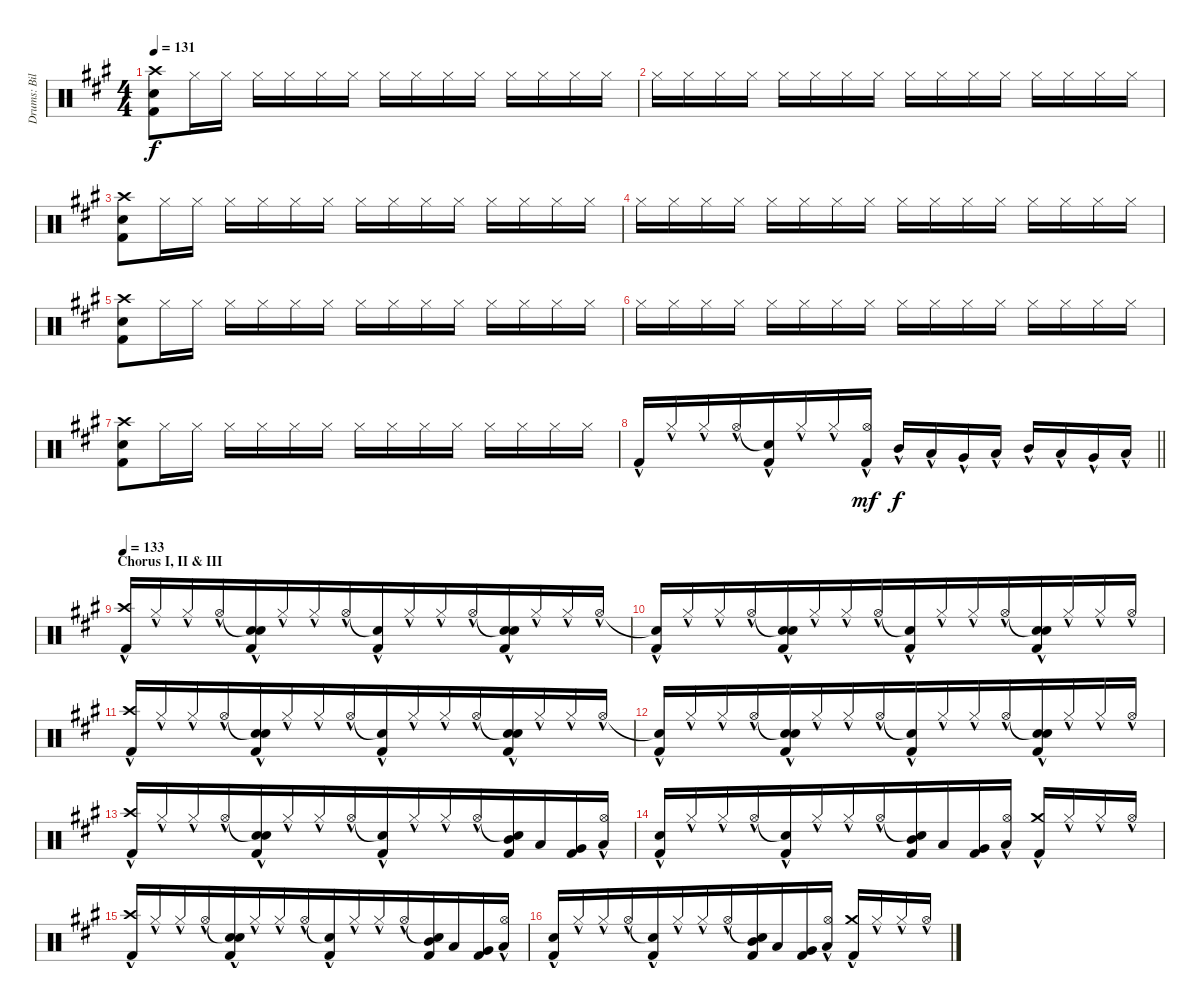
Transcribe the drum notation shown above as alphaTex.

\track ("Drums: Bill" "Drums: Bil") {instrument percussion}
\staff {score}
\articulation defaults
\ts (4 4)
\tempo 131
\clef neutral
\ks a
("Crash high (hit)" "Snare (hit) 2" "Kick (hit) 2").8{dy f} "Hi-Hat (closed)".16 "Hi-Hat (closed)".16 "Hi-Hat (closed)".16 "Hi-Hat (closed)".16 "Hi-Hat (closed)".16 "Hi-Hat (closed)".16 "Hi-Hat (closed)".16 "Hi-Hat (closed)".16 "Hi-Hat (closed)".16 "Hi-Hat (closed)".16 "Hi-Hat (closed)".16 "Hi-Hat (closed)".16 "Hi-Hat (closed)".16 "Hi-Hat (closed)".16 |
"Hi-Hat (closed)".16 "Hi-Hat (closed)".16 "Hi-Hat (closed)".16 "Hi-Hat (closed)".16 "Hi-Hat (closed)".16 "Hi-Hat (closed)".16 "Hi-Hat (closed)".16 "Hi-Hat (closed)".16 "Hi-Hat (closed)".16 "Hi-Hat (closed)".16 "Hi-Hat (closed)".16 "Hi-Hat (closed)".16 "Hi-Hat (closed)".16 "Hi-Hat (closed)".16 "Hi-Hat (closed)".16 "Hi-Hat (closed)".16 |
("Crash high (hit)" "Snare (hit) 2" "Kick (hit) 2").8 "Hi-Hat (closed)".16 "Hi-Hat (closed)".16 "Hi-Hat (closed)".16 "Hi-Hat (closed)".16 "Hi-Hat (closed)".16 "Hi-Hat (closed)".16 "Hi-Hat (closed)".16 "Hi-Hat (closed)".16 "Hi-Hat (closed)".16 "Hi-Hat (closed)".16 "Hi-Hat (closed)".16 "Hi-Hat (closed)".16 "Hi-Hat (closed)".16 "Hi-Hat (closed)".16 |
"Hi-Hat (closed)".16 "Hi-Hat (closed)".16 "Hi-Hat (closed)".16 "Hi-Hat (closed)".16 "Hi-Hat (closed)".16 "Hi-Hat (closed)".16 "Hi-Hat (closed)".16 "Hi-Hat (closed)".16 "Hi-Hat (closed)".16 "Hi-Hat (closed)".16 "Hi-Hat (closed)".16 "Hi-Hat (closed)".16 "Hi-Hat (closed)".16 "Hi-Hat (closed)".16 "Hi-Hat (closed)".16 "Hi-Hat (closed)".16 |
("Crash high (hit)" "Snare (hit) 2" "Kick (hit) 2").8 "Hi-Hat (closed)".16 "Hi-Hat (closed)".16 "Hi-Hat (closed)".16 "Hi-Hat (closed)".16 "Hi-Hat (closed)".16 "Hi-Hat (closed)".16 "Hi-Hat (closed)".16 "Hi-Hat (closed)".16 "Hi-Hat (closed)".16 "Hi-Hat (closed)".16 "Hi-Hat (closed)".16 "Hi-Hat (closed)".16 "Hi-Hat (closed)".16 "Hi-Hat (closed)".16 |
"Hi-Hat (closed)".16 "Hi-Hat (closed)".16 "Hi-Hat (closed)".16 "Hi-Hat (closed)".16 "Hi-Hat (closed)".16 "Hi-Hat (closed)".16 "Hi-Hat (closed)".16 "Hi-Hat (closed)".16 "Hi-Hat (closed)".16 "Hi-Hat (closed)".16 "Hi-Hat (closed)".16 "Hi-Hat (closed)".16 "Hi-Hat (closed)".16 "Hi-Hat (closed)".16 "Hi-Hat (closed)".16 "Hi-Hat (closed)".16 |
("Crash high (hit)" "Snare (hit) 2" "Kick (hit) 2").8 "Hi-Hat (closed)".16 "Hi-Hat (closed)".16 "Hi-Hat (closed)".16 "Hi-Hat (closed)".16 "Hi-Hat (closed)".16 "Hi-Hat (closed)".16 "Hi-Hat (closed)".16 "Hi-Hat (closed)".16 "Hi-Hat (closed)".16 "Hi-Hat (closed)".16 "Hi-Hat (closed)".16 "Hi-Hat (closed)".16 "Hi-Hat (closed)".16 "Hi-Hat (closed)".16 |
\barLineRight lightlight "Kick (hit) 2"{hac}.16{beam Up beam merge} "Hi-Hat (closed)"{hac}.16{beam Up beam merge} "Hi-Hat (closed)"{hac}.16{beam Up beam merge} "Hi-Hat (open)"{hac}.16{beam Up beam merge}
("Snare (hit)"{t} "Kick (hit) 2"{hac}).16{beam Up beam merge} "Hi-Hat (closed)"{hac}.16{beam Up beam merge} "Hi-Hat (closed)"{hac}.16{beam Up beam merge} ("Hi-Hat (open)"{hac} "Kick (hit) 2").16{dy mf beam Up} "Mid Tom (hit)"{hac}.16{dy f} "Low Tom (hit)"{hac}.16 "Very Low Tom (hit)"{hac}.16 "Low Floor Tom (hit)"{hac}.16 "Mid Tom (hit)"{hac}.16 "Low Tom (hit)"{hac}.16 "Very Low Tom (hit)"{hac}.16 "Low Floor Tom (hit)"{hac}.16 |
\section ("" "Chorus I, II & III")
\tempo 133
("Crash high (hit)"{hac} "Kick (hit) 2"{hac}).16{beam Up beam merge} "Hi-Hat (closed)"{hac}.16{beam Up beam merge} "Hi-Hat (closed)"{hac}.16{beam Up beam merge} "Hi-Hat (open)"{hac}.16{beam Up beam merge} ("Snare (hit)"{t} "Electric Snare (hit)"{hac} "Kick (hit) 2"{hac}).16{beam Up beam merge} "Hi-Hat (closed)"{hac}.16{beam Up beam merge} "Hi-Hat (closed)"{hac}.16{beam Up beam merge} "Hi-Hat (open)"{hac}.16{beam Up beam merge} ("Snare (hit)"{t} "Kick (hit) 2"{hac}).16{beam Up beam merge} "Hi-Hat (closed)"{hac}.16{beam Up beam merge} "Hi-Hat (closed)"{hac}.16{beam Up beam merge} "Hi-Hat (open)"{hac}.16{beam Up beam merge} ("Snare (hit)"{t} "Electric Snare (hit)"{hac} "Kick (hit) 2"{hac}).16{beam Up beam merge} "Hi-Hat (closed)"{hac}.16{beam Up beam merge} "Hi-Hat (closed)"{hac}.16{beam Up beam merge} "Hi-Hat (open)"{hac}.16{beam Up} |
("Snare (hit)"{t} "Kick (hit) 2"{hac}).16{beam Up beam merge} "Hi-Hat (closed)"{hac}.16{beam Up beam merge} "Hi-Hat (closed)"{hac}.16{beam Up beam merge} "Hi-Hat (open)"{hac}.16{beam Up beam merge} ("Snare (hit)"{t} "Electric Snare (hit)"{hac} "Kick (hit) 2"{hac}).16{beam Up beam merge} "Hi-Hat (closed)"{hac}.16{beam Up beam merge} "Hi-Hat (closed)"{hac}.16{beam Up beam merge} "Hi-Hat (open)"{hac}.16{beam Up beam merge} ("Snare (hit)"{t} "Kick (hit) 2"{hac}).16{beam Up beam merge} "Hi-Hat (closed)"{hac}.16{beam Up beam merge} "Hi-Hat (closed)"{hac}.16{beam Up beam merge} "Hi-Hat (open)"{hac}.16{beam Up beam merge} ("Snare (hit)"{t} "Electric Snare (hit)" "Kick (hit) 2"{hac}).16{beam Up beam merge} "Hi-Hat (closed)"{hac}.16{beam Up beam merge} "Hi-Hat (closed)"{hac}.16{beam Up beam merge} "Hi-Hat (open)"{hac}.16{beam Up} |
("Crash high (hit)"{hac} "Kick (hit) 2"{hac}).16{beam Up beam merge} "Hi-Hat (closed)"{hac}.16{beam Up beam merge} "Hi-Hat (closed)"{hac}.16{beam Up beam merge} "Hi-Hat (open)"{hac}.16{beam Up beam merge} ("Snare (hit)"{t} "Electric Snare (hit)"{hac} "Kick (hit) 2"{hac}).16{beam Up beam merge} "Hi-Hat (closed)"{hac}.16{beam Up beam merge} "Hi-Hat (closed)"{hac}.16{beam Up beam merge} "Hi-Hat (open)"{hac}.16{beam Up beam merge} ("Snare (hit)"{t} "Kick (hit) 2"{hac}).16{beam Up beam merge} "Hi-Hat (closed)"{hac}.16{beam Up beam merge} "Hi-Hat (closed)"{hac}.16{beam Up beam merge} "Hi-Hat (open)"{hac}.16{beam Up beam merge} ("Snare (hit)"{t} "Electric Snare (hit)"{hac} "Kick (hit) 2"{hac}).16{beam Up beam merge} "Hi-Hat (closed)"{hac}.16{beam Up beam merge} "Hi-Hat (closed)"{hac}.16{beam Up beam merge} "Hi-Hat (open)"{hac}.16{beam Up} |
("Snare (hit)"{t} "Kick (hit) 2"{hac}).16{beam Up beam merge} "Hi-Hat (closed)"{hac}.16{beam Up beam merge} "Hi-Hat (closed)"{hac}.16{beam Up beam merge} "Hi-Hat (open)"{hac}.16{beam Up beam merge} ("Snare (hit)"{t} "Electric Snare (hit)"{hac} "Kick (hit) 2"{hac}).16{beam Up beam merge} "Hi-Hat (closed)"{hac}.16{beam Up beam merge} "Hi-Hat (closed)"{hac}.16{beam Up beam merge} "Hi-Hat (open)"{hac}.16{beam Up beam merge} ("Snare (hit)"{t} "Kick (hit) 2"{hac}).16{beam Up beam merge} "Hi-Hat (closed)"{hac}.16{beam Up beam merge} "Hi-Hat (closed)"{hac}.16{beam Up beam merge} "Hi-Hat (open)"{hac}.16{beam Up beam merge} ("Snare (hit)"{t} "Electric Snare (hit)" "Kick (hit) 2"{hac}).16{beam Up beam merge} "Hi-Hat (closed)"{hac}.16{beam Up beam merge} "Hi-Hat (closed)"{hac}.16{beam Up beam merge} "Hi-Hat (open)"{hac}.16{beam Up} |
("Crash high (hit)"{hac} "Kick (hit) 2"{hac}).16{beam Up beam merge} "Hi-Hat (closed)"{hac}.16{beam Up beam merge} "Hi-Hat (closed)"{hac}.16{beam Up beam merge} "Hi-Hat (open)"{hac}.16{beam Up beam merge} ("Snare (hit)"{t} "Electric Snare (hit)"{hac} "Kick (hit) 2"{hac}).16{beam Up beam merge} "Hi-Hat (closed)"{hac}.16{beam Up beam merge} "Hi-Hat (closed)"{hac}.16{beam Up beam merge} "Hi-Hat (open)"{hac}.16{beam Up beam merge} ("Snare (hit)"{t} "Kick (hit) 2"{hac}).16{beam Up beam merge} "Hi-Hat (closed)"{hac}.16{beam Up beam merge} "Hi-Hat (closed)"{hac}.16{beam Up beam merge} "Hi-Hat (open)"{hac}.16{beam Up beam merge} ("Snare (hit)"{t} "Mid Tom (hit)" "Kick (hit) 2").16{beam Up beam merge} "Low Tom (hit)".16{beam Up beam merge} ("Very Low Tom (hit)" "Kick (hit) 2").16{beam Up beam merge} ("Hi-Hat (open)"{hac} "Low Floor Tom (hit)").16{beam Up} |
("Electric Snare (hit)"{hac} "Kick (hit) 2"{hac}).16{beam Up beam merge} "Hi-Hat (closed)"{hac}.16{beam Up beam merge} "Hi-Hat (closed)"{hac}.16{beam Up beam merge} "Hi-Hat (open)"{hac}.16{beam Up beam merge} ("Snare (hit)"{t} "Kick (hit) 2"{hac}).16{beam Up beam merge} "Hi-Hat (closed)"{hac}.16{beam Up beam merge} "Hi-Hat (closed)"{hac}.16{beam Up beam merge} "Hi-Hat (open)"{hac}.16{beam Up beam merge} ("Snare (hit)"{t} "Mid Tom (hit)" "Kick (hit) 2").16{beam Up beam merge} "Low Tom (hit)".16{beam Up beam merge} ("Very Low Tom (hit)" "Kick (hit) 2").16{beam Up beam merge} ("Hi-Hat (open)"{hac} "Low Floor Tom (hit)").16{beam Up} ("Crash medium (hit)"{hac} "Kick (hit) 2"{hac}).16{beam Up beam merge} "Hi-Hat (closed)"{hac}.16{beam Up beam merge} "Hi-Hat (closed)"{hac}.16{beam Up beam merge} "Hi-Hat (open)"{hac}.16{beam Up} |
("Crash high (hit)"{hac} "Kick (hit) 2"{hac}).16{beam Up beam merge} "Hi-Hat (closed)"{hac}.16{beam Up beam merge} "Hi-Hat (closed)"{hac}.16{beam Up beam merge} "Hi-Hat (open)"{hac}.16{beam Up beam merge} ("Snare (hit)"{t} "Electric Snare (hit)"{hac} "Kick (hit) 2"{hac}).16{beam Up beam merge} "Hi-Hat (closed)"{hac}.16{beam Up beam merge} "Hi-Hat (closed)"{hac}.16{beam Up beam merge} "Hi-Hat (open)"{hac}.16{beam Up beam merge} ("Snare (hit)"{t} "Kick (hit) 2"{hac}).16{beam Up beam merge} "Hi-Hat (closed)"{hac}.16{beam Up beam merge} "Hi-Hat (closed)"{hac}.16{beam Up beam merge} "Hi-Hat (open)"{hac}.16{beam Up beam merge} ("Snare (hit)"{t} "Mid Tom (hit)" "Kick (hit) 2").16{beam Up beam merge} "Low Tom (hit)".16{beam Up beam merge} ("Very Low Tom (hit)" "Kick (hit) 2").16{beam Up beam merge} ("Hi-Hat (open)"{hac} "Low Floor Tom (hit)").16{beam Up} |
("Electric Snare (hit)"{hac} "Kick (hit) 2"{hac}).16{beam Up beam merge} "Hi-Hat (closed)"{hac}.16{beam Up beam merge} "Hi-Hat (closed)"{hac}.16{beam Up beam merge} "Hi-Hat (open)"{hac}.16{beam Up beam merge} ("Snare (hit)"{t} "Kick (hit) 2"{hac}).16{beam Up beam merge} "Hi-Hat (closed)"{hac}.16{beam Up beam merge} "Hi-Hat (closed)"{hac}.16{beam Up beam merge} "Hi-Hat (open)"{hac}.16{beam Up beam merge} ("Snare (hit)"{t} "Mid Tom (hit)" "Kick (hit) 2").16{beam Up beam merge} "Low Tom (hit)".16{beam Up beam merge} ("Very Low Tom (hit)" "Kick (hit) 2").16{beam Up beam merge} ("Hi-Hat (open)"{hac} "Low Floor Tom (hit)").16{beam Up} ("Crash medium (hit)"{hac} "Kick (hit) 2"{hac}).16{beam Up beam merge} "Hi-Hat (closed)"{hac}.16{beam Up beam merge} "Hi-Hat (closed)"{hac}.16{beam Up beam merge} "Hi-Hat (open)"{hac}.16{beam Up}
